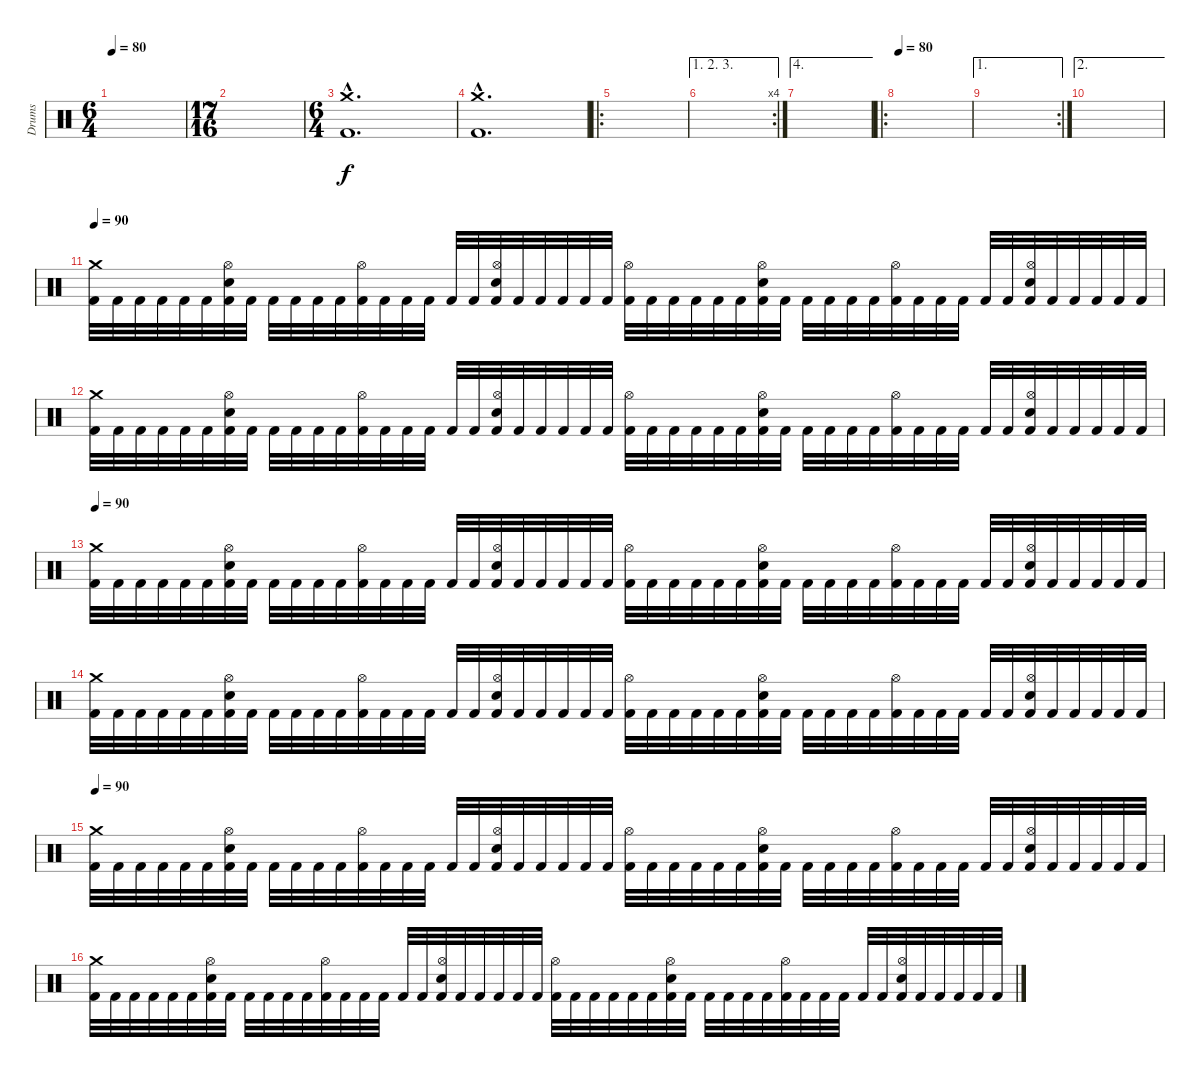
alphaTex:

\track ("Drums" "Drums") {instrument percussion}
\staff {score}
\articulation defaults
\ts (6 4)
\tempo 80
\clef neutral
\ks c
|
\ts (17 16)
|
\ts (6 4)
("Crash medium (hit)"{hac} "Kick (hit) 2"{hac}).1{d} |
("Crash medium (hit)"{hac} "Kick (hit) 2"{hac}).1{d} |
\ro
|
\ae (1 2 3)
\rc 4
|
\ae 4
|
\ro
\tempo 80
|
\ae 1
\rc 2
|
\ae 2
|
\tempo 90
("Crash medium (hit)" "Kick (hit) 2").32 "Kick (hit) 2".32 "Kick (hit) 2".32 "Kick (hit) 2".32 "Kick (hit) 2".32 "Kick (hit) 2".32 ("Hi-Hat (open)" "Electric Snare (hit)" "Kick (hit) 2").32 "Kick (hit) 2".32 "Kick (hit) 2".32 "Kick (hit) 2".32 "Kick (hit) 2".32 "Kick (hit) 2".32 ("Hi-Hat (open)" "Kick (hit) 2").32 "Kick (hit) 2".32 "Kick (hit) 2".32 "Kick (hit) 2".32 "Kick (hit) 2".32 "Kick (hit) 2".32 ("Hi-Hat (open)" "Electric Snare (hit)" "Kick (hit) 2").32 "Kick (hit) 2".32 "Kick (hit) 2".32 "Kick (hit) 2".32 "Kick (hit) 2".32 "Kick (hit) 2".32 ("Hi-Hat (open)" "Kick (hit) 2").32 "Kick (hit) 2".32 "Kick (hit) 2".32 "Kick (hit) 2".32 "Kick (hit) 2".32 "Kick (hit) 2".32 ("Hi-Hat (open)" "Electric Snare (hit)" "Kick (hit) 2").32 "Kick (hit) 2".32 "Kick (hit) 2".32 "Kick (hit) 2".32 "Kick (hit) 2".32 "Kick (hit) 2".32 ("Hi-Hat (open)" "Kick (hit) 2").32 "Kick (hit) 2".32 "Kick (hit) 2".32 "Kick (hit) 2".32 "Kick (hit) 2".32 "Kick (hit) 2".32 ("Hi-Hat (open)" "Electric Snare (hit)" "Kick (hit) 2").32 "Kick (hit) 2".32 "Kick (hit) 2".32 "Kick (hit) 2".32 "Kick (hit) 2".32 "Kick (hit) 2".32 |
("Crash medium (hit)" "Kick (hit) 2").32 "Kick (hit) 2".32 "Kick (hit) 2".32 "Kick (hit) 2".32 "Kick (hit) 2".32 "Kick (hit) 2".32 ("Hi-Hat (open)" "Electric Snare (hit)" "Kick (hit) 2").32 "Kick (hit) 2".32 "Kick (hit) 2".32 "Kick (hit) 2".32 "Kick (hit) 2".32 "Kick (hit) 2".32 ("Hi-Hat (open)" "Kick (hit) 2").32 "Kick (hit) 2".32 "Kick (hit) 2".32 "Kick (hit) 2".32 "Kick (hit) 2".32 "Kick (hit) 2".32 ("Hi-Hat (open)" "Electric Snare (hit)" "Kick (hit) 2").32 "Kick (hit) 2".32 "Kick (hit) 2".32 "Kick (hit) 2".32 "Kick (hit) 2".32 "Kick (hit) 2".32 ("Hi-Hat (open)" "Kick (hit) 2").32 "Kick (hit) 2".32 "Kick (hit) 2".32 "Kick (hit) 2".32 "Kick (hit) 2".32 "Kick (hit) 2".32 ("Hi-Hat (open)" "Electric Snare (hit)" "Kick (hit) 2").32 "Kick (hit) 2".32 "Kick (hit) 2".32 "Kick (hit) 2".32 "Kick (hit) 2".32 "Kick (hit) 2".32 ("Hi-Hat (open)" "Kick (hit) 2").32 "Kick (hit) 2".32 "Kick (hit) 2".32 "Kick (hit) 2".32 "Kick (hit) 2".32 "Kick (hit) 2".32 ("Hi-Hat (open)" "Electric Snare (hit)" "Kick (hit) 2").32 "Kick (hit) 2".32 "Kick (hit) 2".32 "Kick (hit) 2".32 "Kick (hit) 2".32 "Kick (hit) 2".32 |
\tempo 90
("Crash medium (hit)" "Kick (hit) 2").32 "Kick (hit) 2".32 "Kick (hit) 2".32 "Kick (hit) 2".32 "Kick (hit) 2".32 "Kick (hit) 2".32 ("Hi-Hat (open)" "Electric Snare (hit)" "Kick (hit) 2").32 "Kick (hit) 2".32 "Kick (hit) 2".32 "Kick (hit) 2".32 "Kick (hit) 2".32 "Kick (hit) 2".32 ("Hi-Hat (open)" "Kick (hit) 2").32 "Kick (hit) 2".32 "Kick (hit) 2".32 "Kick (hit) 2".32 "Kick (hit) 2".32 "Kick (hit) 2".32 ("Hi-Hat (open)" "Electric Snare (hit)" "Kick (hit) 2").32 "Kick (hit) 2".32 "Kick (hit) 2".32 "Kick (hit) 2".32 "Kick (hit) 2".32 "Kick (hit) 2".32 ("Hi-Hat (open)" "Kick (hit) 2").32 "Kick (hit) 2".32 "Kick (hit) 2".32 "Kick (hit) 2".32 "Kick (hit) 2".32 "Kick (hit) 2".32 ("Hi-Hat (open)" "Electric Snare (hit)" "Kick (hit) 2").32 "Kick (hit) 2".32 "Kick (hit) 2".32 "Kick (hit) 2".32 "Kick (hit) 2".32 "Kick (hit) 2".32 ("Hi-Hat (open)" "Kick (hit) 2").32 "Kick (hit) 2".32 "Kick (hit) 2".32 "Kick (hit) 2".32 "Kick (hit) 2".32 "Kick (hit) 2".32 ("Hi-Hat (open)" "Electric Snare (hit)" "Kick (hit) 2").32 "Kick (hit) 2".32 "Kick (hit) 2".32 "Kick (hit) 2".32 "Kick (hit) 2".32 "Kick (hit) 2".32 |
("Crash medium (hit)" "Kick (hit) 2").32 "Kick (hit) 2".32 "Kick (hit) 2".32 "Kick (hit) 2".32 "Kick (hit) 2".32 "Kick (hit) 2".32 ("Hi-Hat (open)" "Electric Snare (hit)" "Kick (hit) 2").32 "Kick (hit) 2".32 "Kick (hit) 2".32 "Kick (hit) 2".32 "Kick (hit) 2".32 "Kick (hit) 2".32 ("Hi-Hat (open)" "Kick (hit) 2").32 "Kick (hit) 2".32 "Kick (hit) 2".32 "Kick (hit) 2".32 "Kick (hit) 2".32 "Kick (hit) 2".32 ("Hi-Hat (open)" "Electric Snare (hit)" "Kick (hit) 2").32 "Kick (hit) 2".32 "Kick (hit) 2".32 "Kick (hit) 2".32 "Kick (hit) 2".32 "Kick (hit) 2".32 ("Hi-Hat (open)" "Kick (hit) 2").32 "Kick (hit) 2".32 "Kick (hit) 2".32 "Kick (hit) 2".32 "Kick (hit) 2".32 "Kick (hit) 2".32 ("Hi-Hat (open)" "Electric Snare (hit)" "Kick (hit) 2").32 "Kick (hit) 2".32 "Kick (hit) 2".32 "Kick (hit) 2".32 "Kick (hit) 2".32 "Kick (hit) 2".32 ("Hi-Hat (open)" "Kick (hit) 2").32 "Kick (hit) 2".32 "Kick (hit) 2".32 "Kick (hit) 2".32 "Kick (hit) 2".32 "Kick (hit) 2".32 ("Hi-Hat (open)" "Electric Snare (hit)" "Kick (hit) 2").32 "Kick (hit) 2".32 "Kick (hit) 2".32 "Kick (hit) 2".32 "Kick (hit) 2".32 "Kick (hit) 2".32 |
\tempo 90
("Crash medium (hit)" "Kick (hit) 2").32 "Kick (hit) 2".32 "Kick (hit) 2".32 "Kick (hit) 2".32 "Kick (hit) 2".32 "Kick (hit) 2".32 ("Hi-Hat (open)" "Electric Snare (hit)" "Kick (hit) 2").32 "Kick (hit) 2".32 "Kick (hit) 2".32 "Kick (hit) 2".32 "Kick (hit) 2".32 "Kick (hit) 2".32 ("Hi-Hat (open)" "Kick (hit) 2").32 "Kick (hit) 2".32 "Kick (hit) 2".32 "Kick (hit) 2".32 "Kick (hit) 2".32 "Kick (hit) 2".32 ("Hi-Hat (open)" "Electric Snare (hit)" "Kick (hit) 2").32 "Kick (hit) 2".32 "Kick (hit) 2".32 "Kick (hit) 2".32 "Kick (hit) 2".32 "Kick (hit) 2".32 ("Hi-Hat (open)" "Kick (hit) 2").32 "Kick (hit) 2".32 "Kick (hit) 2".32 "Kick (hit) 2".32 "Kick (hit) 2".32 "Kick (hit) 2".32 ("Hi-Hat (open)" "Electric Snare (hit)" "Kick (hit) 2").32 "Kick (hit) 2".32 "Kick (hit) 2".32 "Kick (hit) 2".32 "Kick (hit) 2".32 "Kick (hit) 2".32 ("Hi-Hat (open)" "Kick (hit) 2").32 "Kick (hit) 2".32 "Kick (hit) 2".32 "Kick (hit) 2".32 "Kick (hit) 2".32 "Kick (hit) 2".32 ("Hi-Hat (open)" "Electric Snare (hit)" "Kick (hit) 2").32 "Kick (hit) 2".32 "Kick (hit) 2".32 "Kick (hit) 2".32 "Kick (hit) 2".32 "Kick (hit) 2".32 |
("Crash medium (hit)" "Kick (hit) 2").32 "Kick (hit) 2".32 "Kick (hit) 2".32 "Kick (hit) 2".32 "Kick (hit) 2".32 "Kick (hit) 2".32 ("Hi-Hat (open)" "Electric Snare (hit)" "Kick (hit) 2").32 "Kick (hit) 2".32 "Kick (hit) 2".32 "Kick (hit) 2".32 "Kick (hit) 2".32 "Kick (hit) 2".32 ("Hi-Hat (open)" "Kick (hit) 2").32 "Kick (hit) 2".32 "Kick (hit) 2".32 "Kick (hit) 2".32 "Kick (hit) 2".32 "Kick (hit) 2".32 ("Hi-Hat (open)" "Electric Snare (hit)" "Kick (hit) 2").32 "Kick (hit) 2".32 "Kick (hit) 2".32 "Kick (hit) 2".32 "Kick (hit) 2".32 "Kick (hit) 2".32 ("Hi-Hat (open)" "Kick (hit) 2").32 "Kick (hit) 2".32 "Kick (hit) 2".32 "Kick (hit) 2".32 "Kick (hit) 2".32 "Kick (hit) 2".32 ("Hi-Hat (open)" "Electric Snare (hit)" "Kick (hit) 2").32 "Kick (hit) 2".32 "Kick (hit) 2".32 "Kick (hit) 2".32 "Kick (hit) 2".32 "Kick (hit) 2".32 ("Hi-Hat (open)" "Kick (hit) 2").32 "Kick (hit) 2".32 "Kick (hit) 2".32 "Kick (hit) 2".32 "Kick (hit) 2".32 "Kick (hit) 2".32 ("Hi-Hat (open)" "Electric Snare (hit)" "Kick (hit) 2").32 "Kick (hit) 2".32 "Kick (hit) 2".32 "Kick (hit) 2".32 "Kick (hit) 2".32 "Kick (hit) 2".32
